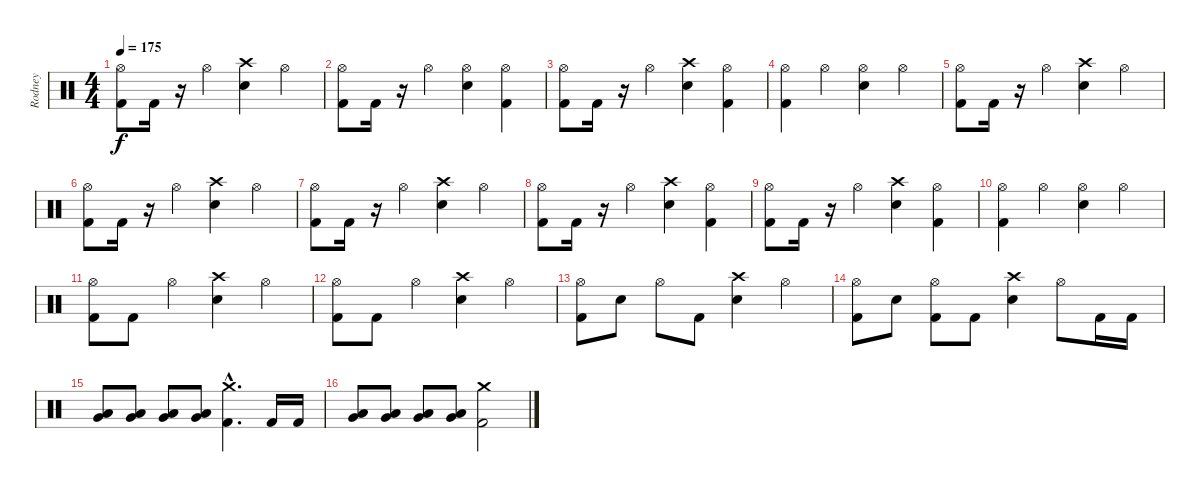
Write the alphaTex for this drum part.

\track ("Rodney" "Rodney") {instrument percussion}
\staff {score}
\articulation defaults
\ts (4 4)
\tempo 175
\clef neutral
\ks c
("Hi-Hat (open)" "Kick (hit) 2").8{dy f} "Kick (hit) 2".16 r.16 "Hi-Hat (open)".4 ("Crash high (hit)" "Snare (hit) 2").4 "Hi-Hat (open)".4 |
("Hi-Hat (open)" "Kick (hit) 2").8 "Kick (hit) 2".16 r.16 "Hi-Hat (open)".4 ("Hi-Hat (open)" "Snare (hit) 2").4 ("Hi-Hat (open)" "Kick (hit) 2").4 |
("Hi-Hat (open)" "Kick (hit) 2").8 "Kick (hit) 2".16 r.16 "Hi-Hat (open)".4 ("Crash high (hit)" "Snare (hit) 2").4 ("Hi-Hat (open)" "Kick (hit) 2").4 |
("Hi-Hat (open)" "Kick (hit) 2").4 "Hi-Hat (open)".4 ("Hi-Hat (open)" "Snare (hit) 2").4 "Hi-Hat (open)".4 |
("Hi-Hat (open)" "Kick (hit) 2").8 "Kick (hit) 2".16 r.16 "Hi-Hat (open)".4 ("Crash high (hit)" "Snare (hit) 2").4 "Hi-Hat (open)".4 |
("Hi-Hat (open)" "Kick (hit) 2").8 "Kick (hit) 2".16 r.16 "Hi-Hat (open)".4 ("Crash high (hit)" "Snare (hit) 2").4 "Hi-Hat (open)".4 |
("Hi-Hat (open)" "Kick (hit) 2").8 "Kick (hit) 2".16 r.16 "Hi-Hat (open)".4 ("Crash high (hit)" "Snare (hit) 2").4 "Hi-Hat (open)".4 |
("Hi-Hat (open)" "Kick (hit) 2").8 "Kick (hit) 2".16 r.16 "Hi-Hat (open)".4 ("Crash high (hit)" "Snare (hit) 2").4 ("Hi-Hat (open)" "Kick (hit) 2").4 |
("Hi-Hat (open)" "Kick (hit) 2").8 "Kick (hit) 2".16 r.16 "Hi-Hat (open)".4 ("Crash high (hit)" "Snare (hit) 2").4 ("Hi-Hat (open)" "Kick (hit) 2").4 |
("Hi-Hat (open)" "Kick (hit) 2").4 "Hi-Hat (open)".4 ("Hi-Hat (open)" "Snare (hit) 2").4 "Hi-Hat (open)".4 |
("Hi-Hat (open)" "Kick (hit) 2").8 "Kick (hit) 2".8 "Hi-Hat (open)".4 ("Crash high (hit)" "Snare (hit) 2").4 "Hi-Hat (open)".4 |
("Hi-Hat (open)" "Kick (hit) 2").8 "Kick (hit) 2".8 "Hi-Hat (open)".4 ("Crash high (hit)" "Snare (hit) 2").4 "Hi-Hat (open)".4 |
("Hi-Hat (open)" "Kick (hit) 2").8 "Snare (hit) 2".8 "Hi-Hat (open)".8 "Kick (hit) 2".8 ("Crash high (hit)" "Snare (hit) 2").4 "Hi-Hat (open)".4 |
("Hi-Hat (open)" "Kick (hit) 2").8 "Snare (hit) 2".8 ("Hi-Hat (open)" "Kick (hit) 2").8 "Kick (hit) 2".8 ("Crash high (hit)" "Snare (hit) 2").4 "Hi-Hat (open)".8 "Kick (hit) 2".16 "Kick (hit) 2".16 |
("Low Tom (hit)" "Very Low Tom (hit)").8{bd 120} ("Low Tom (hit)" "Very Low Tom (hit)").8{bd 120} ("Low Tom (hit)" "Very Low Tom (hit)").8{bd 120} ("Low Tom (hit)" "Very Low Tom (hit)").8{bd 120} ("Crash medium (hit)"{hac} "Kick (hit) 2"{hac}).4{d} "Kick (hit) 2".16 "Kick (hit) 2".16 |
("Very Low Tom (hit)" "Low Floor Tom (hit)").8{bd 120} ("Very Low Tom (hit)" "Low Floor Tom (hit)").8{bd 120} ("Very Low Tom (hit)" "Low Floor Tom (hit)").8{bd 120} ("Very Low Tom (hit)" "Low Floor Tom (hit)").8{bd 120} ("Crash medium (hit)" "Kick (hit) 2").2
